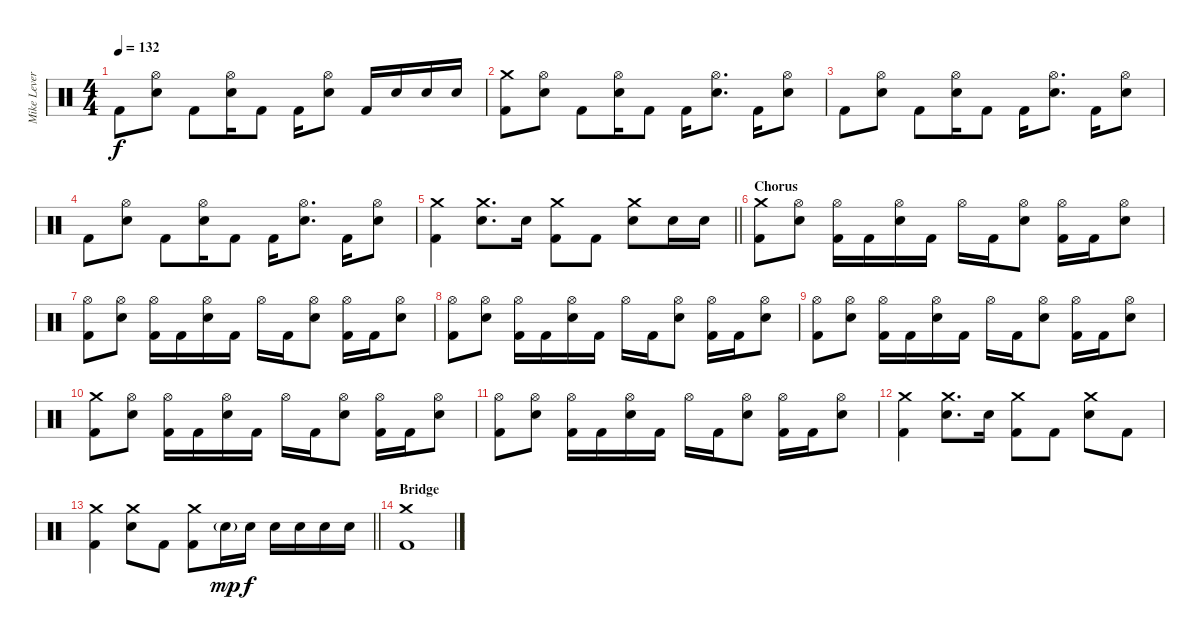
\track ("Mike Leverence - Drums" "Mike Lever") {instrument percussion}
\staff {score}
\articulation defaults
\ts (4 4)
\tempo 132
\clef neutral
\ks c "Kick (hit) 2".8{dy f}
("Hi-Hat (open)" "Electric Snare (hit)").8 "Kick (hit) 2".8 ("Hi-Hat (open)" "Electric Snare (hit)").16 "Kick (hit) 2".8 "Kick (hit) 2".16 ("Hi-Hat (open)" "Electric Snare (hit)").8 "Kick (hit) 2".16 "Electric Snare (hit)".16 "Electric Snare (hit)".16 "Electric Snare (hit)".16 |
("Crash medium (hit)" "Kick (hit) 2").8 ("Hi-Hat (open)" "Electric Snare (hit)").8 "Kick (hit) 2".8 ("Hi-Hat (open)" "Electric Snare (hit)").16 "Kick (hit) 2".8 "Kick (hit) 2".16 ("Hi-Hat (open)" "Electric Snare (hit)").8{d} "Kick (hit) 2".16 ("Hi-Hat (open)" "Electric Snare (hit)").8 |
"Kick (hit) 2".8 ("Hi-Hat (open)" "Electric Snare (hit)").8 "Kick (hit) 2".8 ("Hi-Hat (open)" "Electric Snare (hit)").16 "Kick (hit) 2".8 "Kick (hit) 2".16 ("Hi-Hat (open)" "Electric Snare (hit)").8{d} "Kick (hit) 2".16 ("Hi-Hat (open)" "Electric Snare (hit)").8 |
"Kick (hit) 2".8 ("Hi-Hat (open)" "Electric Snare (hit)").8 "Kick (hit) 2".8 ("Hi-Hat (open)" "Electric Snare (hit)").16 "Kick (hit) 2".8 "Kick (hit) 2".16 ("Hi-Hat (open)" "Electric Snare (hit)").8{d} "Kick (hit) 2".16 ("Hi-Hat (open)" "Electric Snare (hit)").8 |
\barLineRight lightlight
("Crash medium (hit)" "Kick (hit) 2").4 ("Crash medium (hit)" "Electric Snare (hit)").8{d} "Electric Snare (hit)".16 ("Crash medium (hit)" "Kick (hit) 2").8 "Kick (hit) 2".8 ("Crash medium (hit)" "Electric Snare (hit)").8 "Electric Snare (hit)".16 "Electric Snare (hit)".16 |
\section ("" "Chorus")
("Crash medium (hit)" "Kick (hit) 2").8 ("Hi-Hat (open)" "Electric Snare (hit)").8 ("Hi-Hat (open)" "Kick (hit) 2").16 "Kick (hit) 2".16 ("Hi-Hat (open)" "Electric Snare (hit)").16 "Kick (hit) 2".16 "Hi-Hat (open)".16 "Kick (hit) 2".16 ("Hi-Hat (open)" "Electric Snare (hit)").8 ("Hi-Hat (open)" "Kick (hit) 2").16 "Kick (hit) 2".16 ("Hi-Hat (open)" "Electric Snare (hit)").8 |
("Hi-Hat (open)" "Kick (hit) 2").8 ("Hi-Hat (open)" "Electric Snare (hit)").8 ("Hi-Hat (open)" "Kick (hit) 2").16 "Kick (hit) 2".16 ("Hi-Hat (open)" "Electric Snare (hit)").16 "Kick (hit) 2".16 "Hi-Hat (open)".16 "Kick (hit) 2".16 ("Hi-Hat (open)" "Electric Snare (hit)").8 ("Hi-Hat (open)" "Kick (hit) 2").16 "Kick (hit) 2".16 ("Hi-Hat (open)" "Electric Snare (hit)").8 |
("Hi-Hat (open)" "Kick (hit) 2").8 ("Hi-Hat (open)" "Electric Snare (hit)").8 ("Hi-Hat (open)" "Kick (hit) 2").16 "Kick (hit) 2".16 ("Hi-Hat (open)" "Electric Snare (hit)").16 "Kick (hit) 2".16 "Hi-Hat (open)".16 "Kick (hit) 2".16 ("Hi-Hat (open)" "Electric Snare (hit)").8 ("Hi-Hat (open)" "Kick (hit) 2").16 "Kick (hit) 2".16 ("Hi-Hat (open)" "Electric Snare (hit)").8 |
("Hi-Hat (open)" "Kick (hit) 2").8 ("Hi-Hat (open)" "Electric Snare (hit)").8 ("Hi-Hat (open)" "Kick (hit) 2").16 "Kick (hit) 2".16 ("Hi-Hat (open)" "Electric Snare (hit)").16 "Kick (hit) 2".16 "Hi-Hat (open)".16 "Kick (hit) 2".16 ("Hi-Hat (open)" "Electric Snare (hit)").8 ("Hi-Hat (open)" "Kick (hit) 2").16 "Kick (hit) 2".16 ("Hi-Hat (open)" "Electric Snare (hit)").8 |
("Crash medium (hit)" "Kick (hit) 2").8 ("Hi-Hat (open)" "Electric Snare (hit)").8 ("Hi-Hat (open)" "Kick (hit) 2").16 "Kick (hit) 2".16 ("Hi-Hat (open)" "Electric Snare (hit)").16 "Kick (hit) 2".16 "Hi-Hat (open)".16 "Kick (hit) 2".16 ("Hi-Hat (open)" "Electric Snare (hit)").8 ("Hi-Hat (open)" "Kick (hit) 2").16 "Kick (hit) 2".16 ("Hi-Hat (open)" "Electric Snare (hit)").8 |
("Hi-Hat (open)" "Kick (hit) 2").8 ("Hi-Hat (open)" "Electric Snare (hit)").8 ("Hi-Hat (open)" "Kick (hit) 2").16 "Kick (hit) 2".16 ("Hi-Hat (open)" "Electric Snare (hit)").16 "Kick (hit) 2".16 "Hi-Hat (open)".16 "Kick (hit) 2".16 ("Hi-Hat (open)" "Electric Snare (hit)").8 ("Hi-Hat (open)" "Kick (hit) 2").16 "Kick (hit) 2".16 ("Hi-Hat (open)" "Electric Snare (hit)").8 |
("Crash medium (hit)" "Kick (hit) 2").4 ("Crash medium (hit)" "Electric Snare (hit)").8{d} "Electric Snare (hit)".16 ("Crash medium (hit)" "Kick (hit) 2").8 "Kick (hit) 2".8 ("Crash medium (hit)" "Electric Snare (hit)").8 "Kick (hit) 2".8 |
\barLineRight lightlight
("Crash medium (hit)" "Kick (hit) 2").4 ("Crash medium (hit)" "Electric Snare (hit)").8 "Kick (hit) 2".8 ("Crash medium (hit)" "Kick (hit) 2").8 "Electric Snare (hit)"{g}.16{dy mp} "Electric Snare (hit)".16{dy f} "Electric Snare (hit)".16 "Electric Snare (hit)".16 "Electric Snare (hit)".16 "Electric Snare (hit)".16 |
\section ("" "Bridge")
("Crash medium (hit)" "Kick (hit) 2").1
